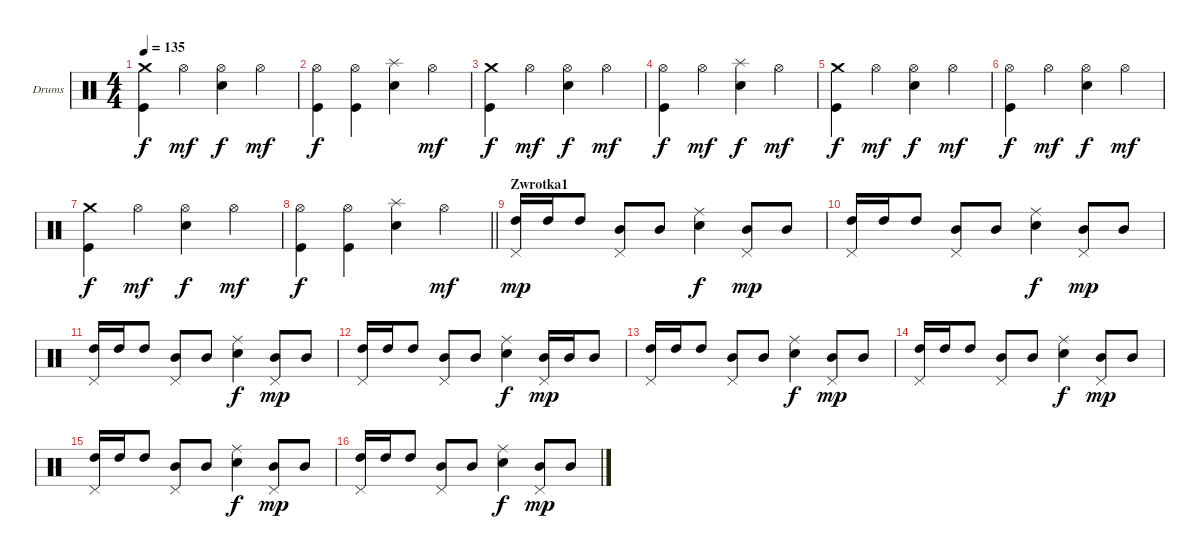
\bracketExtendMode groupsimilarinstruments
\firstSystemTrackNameOrientation horizontal
\otherSystemsTrackNameOrientation horizontal
\track ("Drumkit" "Drums") {instrument percussion}
\staff {score}
\articulation defaults
\ts (4 4)
\tempo 135
\clef neutral
\ks c
("Kick (hit)" "Crash medium (hit)").4{dy f} "Hi-Hat (open)".4{dy mf} ("Snare (hit) 2" "Hi-Hat (open)").4{dy f} "Hi-Hat (open)".4{dy mf} |
("Kick (hit)" "Hi-Hat (open)").4{dy f} ("Kick (hit)" "Hi-Hat (open)").4 ("Snare (hit) 2" "Splash (hit)").4 "Hi-Hat (open)".4{dy mf} |
("Kick (hit)" "Crash medium (hit)").4{dy f} "Hi-Hat (open)".4{dy mf} ("Snare (hit) 2" "Hi-Hat (open)").4{dy f} "Hi-Hat (open)".4{dy mf} |
("Kick (hit)" "Hi-Hat (open)").4{dy f} "Hi-Hat (open)".4{dy mf} ("Snare (hit) 2" "Splash (hit)").4{dy f} "Hi-Hat (open)".4{dy mf} |
("Kick (hit)" "Crash medium (hit)").4{dy f} "Hi-Hat (open)".4{dy mf} ("Snare (hit) 2" "Hi-Hat (open)").4{dy f} "Hi-Hat (open)".4{dy mf} |
("Kick (hit)" "Hi-Hat (open)").4{dy f} "Hi-Hat (open)".4{dy mf} ("Snare (hit) 2" "Hi-Hat (open)").4{dy f} "Hi-Hat (open)".4{dy mf} |
("Kick (hit)" "Crash medium (hit)").4{dy f} "Hi-Hat (open)".4{dy mf} ("Snare (hit) 2" "Hi-Hat (open)").4{dy f} "Hi-Hat (open)".4{dy mf} |
\barLineRight lightlight
("Kick (hit)" "Hi-Hat (open)").4{dy f} ("Kick (hit)" "Hi-Hat (open)").4 ("Snare (hit) 2" "Splash (hit)").4 "Hi-Hat (open)".4{dy mf} |
\section ("" "Zwrotka1")
("High Tom (hit)" "Pedal Hi-Hat (hit)").16{dy mp} "High Tom (hit)".16 "High Tom (hit)".8 ("Mid Tom (hit)" "Pedal Hi-Hat (hit)").8 "Mid Tom (hit)".8 ("Snare (hit) 2" "Ride (middle)").4{dy f} ("Mid Tom (hit)" "Pedal Hi-Hat (hit)").8{dy mp} "Mid Tom (hit)".8 |
("High Tom (hit)" "Pedal Hi-Hat (hit)").16 "High Tom (hit)".16 "High Tom (hit)".8 ("Mid Tom (hit)" "Pedal Hi-Hat (hit)").8 "Mid Tom (hit)".8 ("Snare (hit) 2" "Ride (middle)").4{dy f} ("Mid Tom (hit)" "Pedal Hi-Hat (hit)").8{dy mp} "Mid Tom (hit)".8 |
("High Tom (hit)" "Pedal Hi-Hat (hit)").16 "High Tom (hit)".16 "High Tom (hit)".8 ("Mid Tom (hit)" "Pedal Hi-Hat (hit)").8 "Mid Tom (hit)".8 ("Snare (hit) 2" "Ride (middle)").4{dy f} ("Mid Tom (hit)" "Pedal Hi-Hat (hit)").8{dy mp} "Mid Tom (hit)".8 |
("High Tom (hit)" "Pedal Hi-Hat (hit)").16 "High Tom (hit)".16 "High Tom (hit)".8 ("Mid Tom (hit)" "Pedal Hi-Hat (hit)").8 "Mid Tom (hit)".8 ("Snare (hit) 2" "Ride (middle)").4{dy f} ("Mid Tom (hit)" "Pedal Hi-Hat (hit)").16{dy mp} "Mid Tom (hit)".16 "Mid Tom (hit)".8 |
("High Tom (hit)" "Pedal Hi-Hat (hit)").16 "High Tom (hit)".16 "High Tom (hit)".8 ("Mid Tom (hit)" "Pedal Hi-Hat (hit)").8 "Mid Tom (hit)".8 ("Snare (hit) 2" "Ride (middle)").4{dy f} ("Mid Tom (hit)" "Pedal Hi-Hat (hit)").8{dy mp} "Mid Tom (hit)".8 |
("High Tom (hit)" "Pedal Hi-Hat (hit)").16 "High Tom (hit)".16 "High Tom (hit)".8 ("Mid Tom (hit)" "Pedal Hi-Hat (hit)").8 "Mid Tom (hit)".8 ("Snare (hit) 2" "Ride (middle)").4{dy f} ("Mid Tom (hit)" "Pedal Hi-Hat (hit)").8{dy mp} "Mid Tom (hit)".8 |
("High Tom (hit)" "Pedal Hi-Hat (hit)").16 "High Tom (hit)".16 "High Tom (hit)".8 ("Mid Tom (hit)" "Pedal Hi-Hat (hit)").8 "Mid Tom (hit)".8 ("Snare (hit) 2" "Ride (middle)").4{dy f} ("Mid Tom (hit)" "Pedal Hi-Hat (hit)").8{dy mp} "Mid Tom (hit)".8 |
("High Tom (hit)" "Pedal Hi-Hat (hit)").16 "High Tom (hit)".16 "High Tom (hit)".8 ("Mid Tom (hit)" "Pedal Hi-Hat (hit)").8 "Mid Tom (hit)".8 ("Snare (hit) 2" "Ride (middle)").4{dy f} ("Mid Tom (hit)" "Pedal Hi-Hat (hit)").8{dy mp} "Mid Tom (hit)".8
